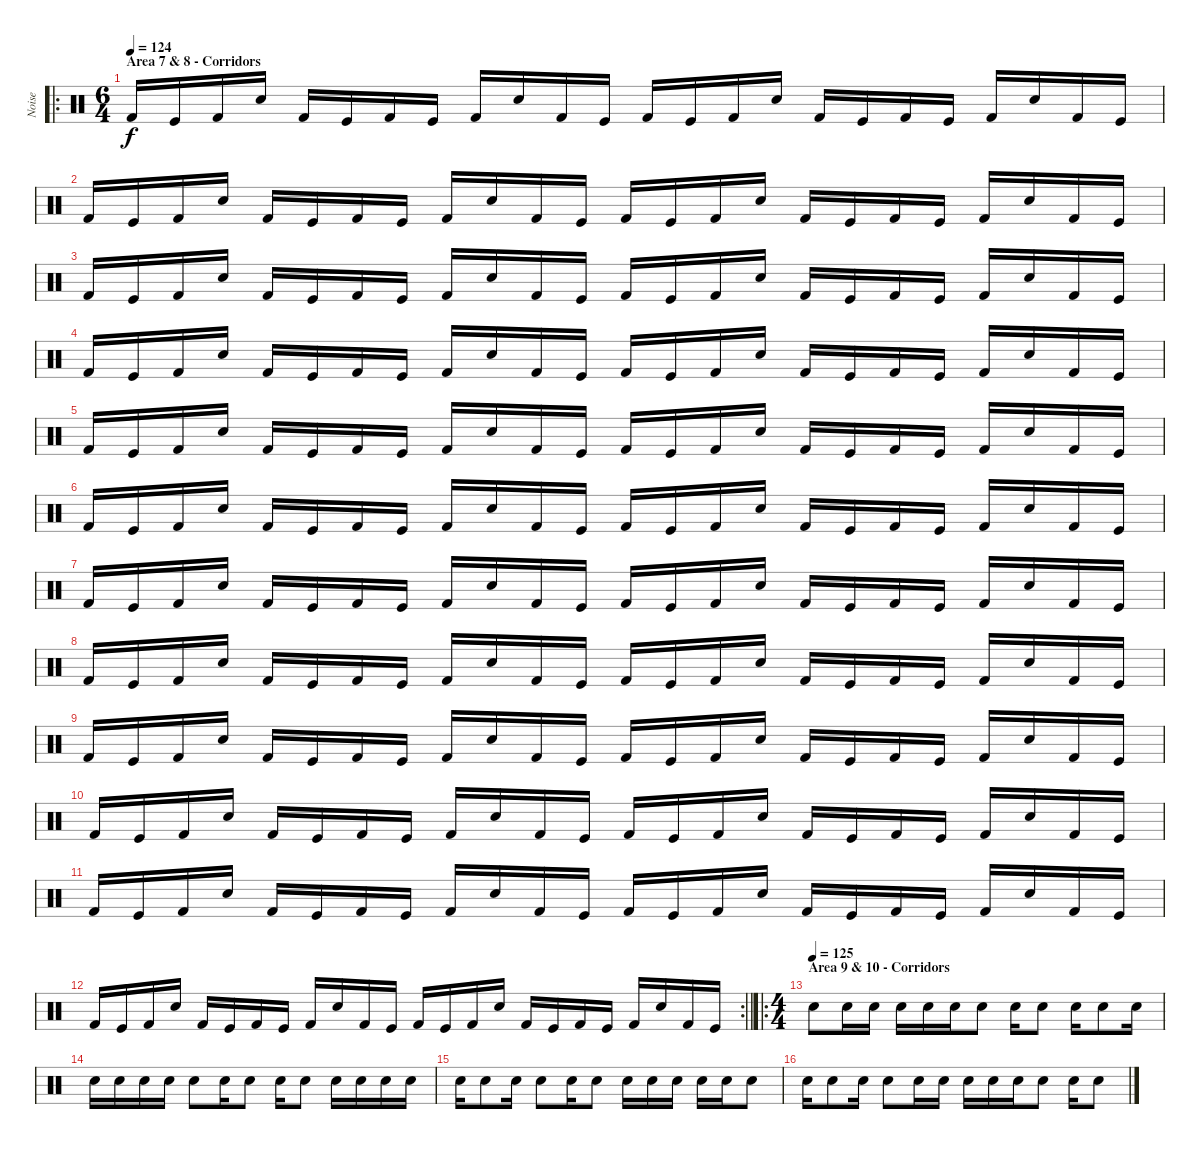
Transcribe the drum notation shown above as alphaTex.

\track ("Noise" "Noise") {instrument percussion}
\staff {score}
\articulation defaults
\ro
\ts (6 4)
\section ("" "Area 7 & 8 - Corridors")
\tempo 124
\clef neutral
\ks c "Kick (hit) 2".16{dy f volume 13} "Kick (hit)".16 "Kick (hit) 2".16 "Snare (hit) 2".16 "Kick (hit) 2".16 "Kick (hit)".16 "Kick (hit) 2".16 "Kick (hit)".16 "Kick (hit) 2".16 "Snare (hit) 2".16 "Kick (hit) 2".16 "Kick (hit)".16 "Kick (hit) 2".16 "Kick (hit)".16 "Kick (hit) 2".16 "Snare (hit) 2".16 "Kick (hit) 2".16 "Kick (hit)".16 "Kick (hit) 2".16 "Kick (hit)".16 "Kick (hit) 2".16 "Snare (hit) 2".16 "Kick (hit) 2".16 "Kick (hit)".16
|
"Kick (hit) 2".16 "Kick (hit)".16 "Kick (hit) 2".16 "Snare (hit) 2".16 "Kick (hit) 2".16 "Kick (hit)".16 "Kick (hit) 2".16 "Kick (hit)".16 "Kick (hit) 2".16 "Snare (hit) 2".16 "Kick (hit) 2".16 "Kick (hit)".16 "Kick (hit) 2".16 "Kick (hit)".16 "Kick (hit) 2".16 "Snare (hit) 2".16 "Kick (hit) 2".16 "Kick (hit)".16 "Kick (hit) 2".16 "Kick (hit)".16 "Kick (hit) 2".16 "Snare (hit) 2".16 "Kick (hit) 2".16 "Kick (hit)".16 |
"Kick (hit) 2".16 "Kick (hit)".16 "Kick (hit) 2".16 "Snare (hit) 2".16 "Kick (hit) 2".16 "Kick (hit)".16 "Kick (hit) 2".16 "Kick (hit)".16 "Kick (hit) 2".16 "Snare (hit) 2".16 "Kick (hit) 2".16 "Kick (hit)".16 "Kick (hit) 2".16 "Kick (hit)".16 "Kick (hit) 2".16 "Snare (hit) 2".16 "Kick (hit) 2".16 "Kick (hit)".16 "Kick (hit) 2".16 "Kick (hit)".16 "Kick (hit) 2".16 "Snare (hit) 2".16 "Kick (hit) 2".16 "Kick (hit)".16 |
"Kick (hit) 2".16 "Kick (hit)".16 "Kick (hit) 2".16 "Snare (hit) 2".16 "Kick (hit) 2".16 "Kick (hit)".16 "Kick (hit) 2".16 "Kick (hit)".16 "Kick (hit) 2".16 "Snare (hit) 2".16 "Kick (hit) 2".16 "Kick (hit)".16 "Kick (hit) 2".16 "Kick (hit)".16 "Kick (hit) 2".16 "Snare (hit) 2".16 "Kick (hit) 2".16 "Kick (hit)".16 "Kick (hit) 2".16 "Kick (hit)".16 "Kick (hit) 2".16 "Snare (hit) 2".16 "Kick (hit) 2".16 "Kick (hit)".16 |
"Kick (hit) 2".16 "Kick (hit)".16 "Kick (hit) 2".16 "Snare (hit) 2".16 "Kick (hit) 2".16 "Kick (hit)".16 "Kick (hit) 2".16 "Kick (hit)".16 "Kick (hit) 2".16 "Snare (hit) 2".16 "Kick (hit) 2".16 "Kick (hit)".16 "Kick (hit) 2".16 "Kick (hit)".16 "Kick (hit) 2".16 "Snare (hit) 2".16 "Kick (hit) 2".16 "Kick (hit)".16 "Kick (hit) 2".16 "Kick (hit)".16 "Kick (hit) 2".16 "Snare (hit) 2".16 "Kick (hit) 2".16 "Kick (hit)".16 |
"Kick (hit) 2".16 "Kick (hit)".16 "Kick (hit) 2".16 "Snare (hit) 2".16 "Kick (hit) 2".16 "Kick (hit)".16 "Kick (hit) 2".16 "Kick (hit)".16 "Kick (hit) 2".16 "Snare (hit) 2".16 "Kick (hit) 2".16 "Kick (hit)".16 "Kick (hit) 2".16 "Kick (hit)".16 "Kick (hit) 2".16 "Snare (hit) 2".16 "Kick (hit) 2".16 "Kick (hit)".16 "Kick (hit) 2".16 "Kick (hit)".16 "Kick (hit) 2".16 "Snare (hit) 2".16 "Kick (hit) 2".16 "Kick (hit)".16 |
"Kick (hit) 2".16 "Kick (hit)".16 "Kick (hit) 2".16 "Snare (hit) 2".16 "Kick (hit) 2".16 "Kick (hit)".16 "Kick (hit) 2".16 "Kick (hit)".16 "Kick (hit) 2".16 "Snare (hit) 2".16 "Kick (hit) 2".16 "Kick (hit)".16 "Kick (hit) 2".16 "Kick (hit)".16 "Kick (hit) 2".16 "Snare (hit) 2".16 "Kick (hit) 2".16 "Kick (hit)".16 "Kick (hit) 2".16 "Kick (hit)".16 "Kick (hit) 2".16 "Snare (hit) 2".16 "Kick (hit) 2".16 "Kick (hit)".16 |
"Kick (hit) 2".16 "Kick (hit)".16 "Kick (hit) 2".16 "Snare (hit) 2".16 "Kick (hit) 2".16 "Kick (hit)".16 "Kick (hit) 2".16 "Kick (hit)".16 "Kick (hit) 2".16 "Snare (hit) 2".16 "Kick (hit) 2".16 "Kick (hit)".16 "Kick (hit) 2".16 "Kick (hit)".16 "Kick (hit) 2".16 "Snare (hit) 2".16 "Kick (hit) 2".16 "Kick (hit)".16 "Kick (hit) 2".16 "Kick (hit)".16 "Kick (hit) 2".16 "Snare (hit) 2".16 "Kick (hit) 2".16 "Kick (hit)".16 |
"Kick (hit) 2".16 "Kick (hit)".16 "Kick (hit) 2".16 "Snare (hit) 2".16 "Kick (hit) 2".16 "Kick (hit)".16 "Kick (hit) 2".16 "Kick (hit)".16 "Kick (hit) 2".16 "Snare (hit) 2".16 "Kick (hit) 2".16 "Kick (hit)".16 "Kick (hit) 2".16 "Kick (hit)".16 "Kick (hit) 2".16 "Snare (hit) 2".16 "Kick (hit) 2".16 "Kick (hit)".16 "Kick (hit) 2".16 "Kick (hit)".16 "Kick (hit) 2".16 "Snare (hit) 2".16 "Kick (hit) 2".16 "Kick (hit)".16 |
"Kick (hit) 2".16 "Kick (hit)".16 "Kick (hit) 2".16 "Snare (hit) 2".16 "Kick (hit) 2".16 "Kick (hit)".16 "Kick (hit) 2".16 "Kick (hit)".16 "Kick (hit) 2".16 "Snare (hit) 2".16 "Kick (hit) 2".16 "Kick (hit)".16 "Kick (hit) 2".16 "Kick (hit)".16 "Kick (hit) 2".16 "Snare (hit) 2".16 "Kick (hit) 2".16 "Kick (hit)".16 "Kick (hit) 2".16 "Kick (hit)".16 "Kick (hit) 2".16 "Snare (hit) 2".16 "Kick (hit) 2".16 "Kick (hit)".16 |
"Kick (hit) 2".16 "Kick (hit)".16 "Kick (hit) 2".16 "Snare (hit) 2".16 "Kick (hit) 2".16 "Kick (hit)".16 "Kick (hit) 2".16 "Kick (hit)".16 "Kick (hit) 2".16 "Snare (hit) 2".16 "Kick (hit) 2".16 "Kick (hit)".16 "Kick (hit) 2".16 "Kick (hit)".16 "Kick (hit) 2".16 "Snare (hit) 2".16 "Kick (hit) 2".16 "Kick (hit)".16 "Kick (hit) 2".16 "Kick (hit)".16 "Kick (hit) 2".16 "Snare (hit) 2".16 "Kick (hit) 2".16 "Kick (hit)".16 |
\rc 2
\barLineRight lightlight "Kick (hit) 2".16 "Kick (hit)".16 "Kick (hit) 2".16 "Snare (hit) 2".16 "Kick (hit) 2".16 "Kick (hit)".16 "Kick (hit) 2".16 "Kick (hit)".16 "Kick (hit) 2".16 "Snare (hit) 2".16 "Kick (hit) 2".16 "Kick (hit)".16 "Kick (hit) 2".16 "Kick (hit)".16 "Kick (hit) 2".16 "Snare (hit) 2".16 "Kick (hit) 2".16 "Kick (hit)".16 "Kick (hit) 2".16 "Kick (hit)".16 "Kick (hit) 2".16 "Snare (hit) 2".16 "Kick (hit) 2".16 "Kick (hit)".16
|
\ro
\ts (4 4)
\section ("" "Area 9 & 10 - Corridors")
\tempo (125)
"Snare (hit) 2".8{volume 13} "Snare (hit) 2".16 "Snare (hit) 2".16 "Snare (hit) 2".16 "Snare (hit) 2".16 "Snare (hit) 2".16 "Snare (hit) 2".8 "Snare (hit) 2".16 "Snare (hit) 2".8 "Snare (hit) 2".16 "Snare (hit) 2".8 "Snare (hit) 2".16 |
"Snare (hit) 2".16 "Snare (hit) 2".16 "Snare (hit) 2".16 "Snare (hit) 2".16 "Snare (hit) 2".8 "Snare (hit) 2".16 "Snare (hit) 2".8 "Snare (hit) 2".16 "Snare (hit) 2".8 "Snare (hit) 2".16 "Snare (hit) 2".16 "Snare (hit) 2".16 "Snare (hit) 2".16 |
"Snare (hit) 2".16 "Snare (hit) 2".8 "Snare (hit) 2".16 "Snare (hit) 2".8 "Snare (hit) 2".16 "Snare (hit) 2".8 "Snare (hit) 2".16 "Snare (hit) 2".16 "Snare (hit) 2".16 "Snare (hit) 2".16 "Snare (hit) 2".16 "Snare (hit) 2".8 |
"Snare (hit) 2".16 "Snare (hit) 2".8 "Snare (hit) 2".16 "Snare (hit) 2".8 "Snare (hit) 2".16 "Snare (hit) 2".16 "Snare (hit) 2".16 "Snare (hit) 2".16 "Snare (hit) 2".16 "Snare (hit) 2".8 "Snare (hit) 2".16 "Snare (hit) 2".8
